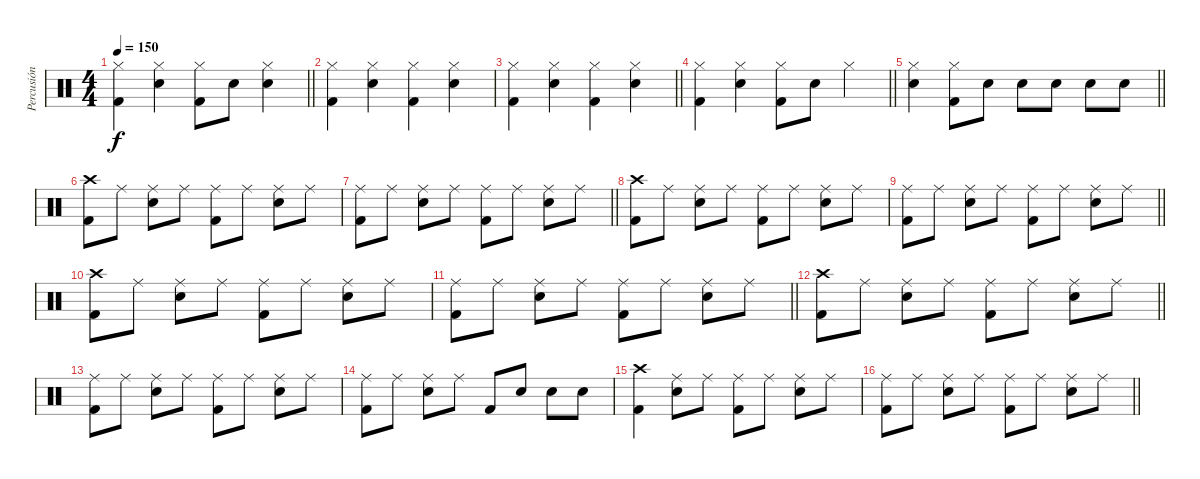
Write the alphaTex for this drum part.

\track ("Percusión" "Percusión") {instrument percussion}
\staff {score}
\articulation defaults
\ts (4 4)
\tempo 150
\clef neutral
\barLineRight lightlight
\ks c
("Hi-Hat (closed)" "Kick (hit) 2").4{dy f} ("Hi-Hat (closed)" "Snare (hit) 2").4 ("Hi-Hat (closed)" "Kick (hit) 2").8 "Snare (hit) 2".8 ("Hi-Hat (closed)" "Snare (hit) 2").4 |
("Hi-Hat (closed)" "Kick (hit) 2").4 ("Hi-Hat (closed)" "Snare (hit) 2").4 ("Hi-Hat (closed)" "Kick (hit) 2").4 ("Hi-Hat (closed)" "Snare (hit) 2").4 |
\barLineRight lightlight
("Hi-Hat (closed)" "Kick (hit) 2").4 ("Hi-Hat (closed)" "Snare (hit) 2").4 ("Hi-Hat (closed)" "Kick (hit) 2").4 ("Hi-Hat (closed)" "Snare (hit) 2").4 |
\barLineRight lightlight
("Hi-Hat (closed)" "Kick (hit) 2").4 ("Hi-Hat (closed)" "Snare (hit) 2").4 ("Hi-Hat (closed)" "Kick (hit) 2").8 "Snare (hit) 2".8 "Hi-Hat (closed)".4 |
\barLineRight lightlight
("Hi-Hat (closed)" "Snare (hit) 2").4 ("Hi-Hat (closed)" "Kick (hit) 2").8 "Snare (hit) 2".8 "Snare (hit) 2".8 "Snare (hit) 2".8 "Snare (hit) 2".8 "Snare (hit) 2".8 |
("Crash high (hit)" "Kick (hit) 2").8 "Ride (middle)".8 ("Ride (middle)" "Snare (hit) 2").8 "Ride (middle)".8 ("Ride (middle)" "Kick (hit) 2").8 "Ride (middle)".8 ("Ride (middle)" "Snare (hit) 2").8 "Ride (middle)".8 |
\barLineRight lightlight
("Ride (middle)" "Kick (hit) 2").8 "Ride (middle)".8 ("Ride (middle)" "Snare (hit) 2").8 "Ride (middle)".8 ("Ride (middle)" "Kick (hit) 2").8 "Ride (middle)".8 ("Ride (middle)" "Snare (hit) 2").8 "Ride (middle)".8 |
("Crash high (hit)" "Kick (hit) 2").8 "Ride (middle)".8 ("Ride (middle)" "Snare (hit) 2").8 "Ride (middle)".8 ("Ride (middle)" "Kick (hit) 2").8 "Ride (middle)".8 ("Ride (middle)" "Snare (hit) 2").8 "Ride (middle)".8 |
\barLineRight lightlight
("Ride (middle)" "Kick (hit) 2").8 "Ride (middle)".8 ("Ride (middle)" "Snare (hit) 2").8 "Ride (middle)".8 ("Ride (middle)" "Kick (hit) 2").8 "Ride (middle)".8 ("Ride (middle)" "Snare (hit) 2").8 "Ride (middle)".8 |
("Crash high (hit)" "Kick (hit) 2").8 "Ride (middle)".8 ("Ride (middle)" "Snare (hit) 2").8 "Ride (middle)".8 ("Ride (middle)" "Kick (hit) 2").8 "Ride (middle)".8 ("Ride (middle)" "Snare (hit) 2").8 "Ride (middle)".8 |
\barLineRight lightlight
("Ride (middle)" "Kick (hit) 2").8 "Ride (middle)".8 ("Ride (middle)" "Snare (hit) 2").8 "Ride (middle)".8 ("Ride (middle)" "Kick (hit) 2").8 "Ride (middle)".8 ("Ride (middle)" "Snare (hit) 2").8 "Ride (middle)".8 |
\barLineRight lightlight
("Crash high (hit)" "Kick (hit) 2").8 "Ride (middle)".8 ("Ride (middle)" "Snare (hit) 2").8 "Ride (middle)".8 ("Ride (middle)" "Kick (hit) 2").8 "Ride (middle)".8 ("Ride (middle)" "Snare (hit) 2").8 "Ride (middle)".8 |
("Ride (middle)" "Kick (hit) 2").8 "Ride (middle)".8 ("Ride (middle)" "Snare (hit) 2").8 "Ride (middle)".8 ("Ride (middle)" "Kick (hit) 2").8 "Ride (middle)".8 ("Ride (middle)" "Snare (hit) 2").8 "Ride (middle)".8 |
("Ride (middle)" "Kick (hit) 2").8 "Ride (middle)".8 ("Ride (middle)" "Snare (hit) 2").8 "Ride (middle)".8 "Kick (hit) 2".8 "Snare (hit) 2".8 "Snare (hit) 2".8 "Snare (hit) 2".8 |
("Crash high (hit)" "Kick (hit) 2").4 ("Ride (middle)" "Snare (hit) 2").8 "Ride (middle)".8 ("Ride (middle)" "Kick (hit) 2").8 "Ride (middle)".8 ("Ride (middle)" "Snare (hit) 2").8 "Ride (middle)".8 |
\barLineRight lightlight
("Ride (middle)" "Kick (hit) 2").8 "Ride (middle)".8 ("Ride (middle)" "Snare (hit) 2").8 "Ride (middle)".8 ("Ride (middle)" "Kick (hit) 2").8 "Ride (middle)".8 ("Ride (middle)" "Snare (hit) 2").8 "Ride (middle)".8
